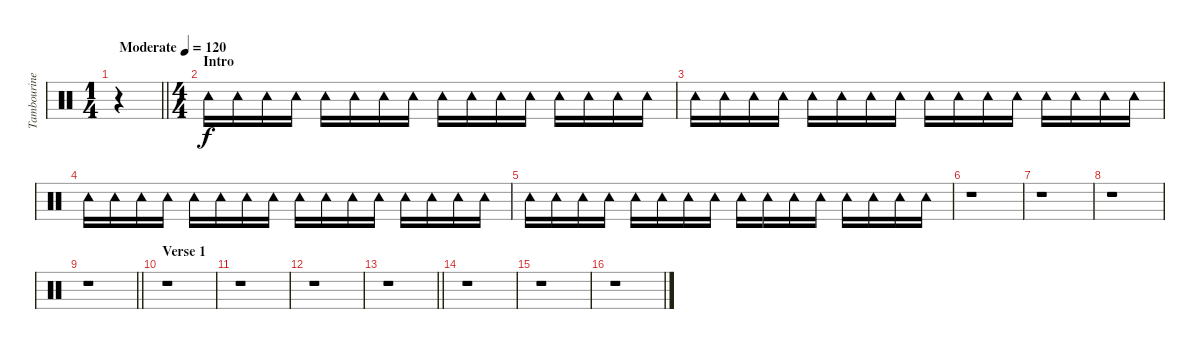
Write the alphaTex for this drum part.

\track ("Tambourine" "Tambourine") {instrument percussion}
\staff {score}
\articulation defaults
\ts (1 4)
\tempo (120 "Moderate")
\clef neutral
\barLineRight lightlight
\ks c
r.4{dy f} |
\ts (4 4)
\section ("" "Intro")
"Tambourine (hit)".16 "Tambourine (hit)".16 "Tambourine (hit)".16 "Tambourine (hit)".16 "Tambourine (hit)".16 "Tambourine (hit)".16 "Tambourine (hit)".16 "Tambourine (hit)".16 "Tambourine (hit)".16 "Tambourine (hit)".16 "Tambourine (hit)".16 "Tambourine (hit)".16 "Tambourine (hit)".16 "Tambourine (hit)".16 "Tambourine (hit)".16 "Tambourine (hit)".16 |
"Tambourine (hit)".16 "Tambourine (hit)".16 "Tambourine (hit)".16 "Tambourine (hit)".16 "Tambourine (hit)".16 "Tambourine (hit)".16 "Tambourine (hit)".16 "Tambourine (hit)".16 "Tambourine (hit)".16 "Tambourine (hit)".16 "Tambourine (hit)".16 "Tambourine (hit)".16 "Tambourine (hit)".16 "Tambourine (hit)".16 "Tambourine (hit)".16 "Tambourine (hit)".16 |
"Tambourine (hit)".16 "Tambourine (hit)".16 "Tambourine (hit)".16 "Tambourine (hit)".16 "Tambourine (hit)".16 "Tambourine (hit)".16 "Tambourine (hit)".16 "Tambourine (hit)".16 "Tambourine (hit)".16 "Tambourine (hit)".16 "Tambourine (hit)".16 "Tambourine (hit)".16 "Tambourine (hit)".16 "Tambourine (hit)".16 "Tambourine (hit)".16 "Tambourine (hit)".16 |
"Tambourine (hit)".16 "Tambourine (hit)".16 "Tambourine (hit)".16 "Tambourine (hit)".16 "Tambourine (hit)".16 "Tambourine (hit)".16 "Tambourine (hit)".16 "Tambourine (hit)".16 "Tambourine (hit)".16 "Tambourine (hit)".16 "Tambourine (hit)".16 "Tambourine (hit)".16 "Tambourine (hit)".16 "Tambourine (hit)".16 "Tambourine (hit)".16 "Tambourine (hit)".16 |
r.1 |
r.1 |
r.1 |
\barLineRight lightlight
r.1 |
\section ("" "Verse 1")
r.1 |
r.1 |
r.1 |
\barLineRight lightlight
r.1 |
r.1 |
r.1 |
r.1
